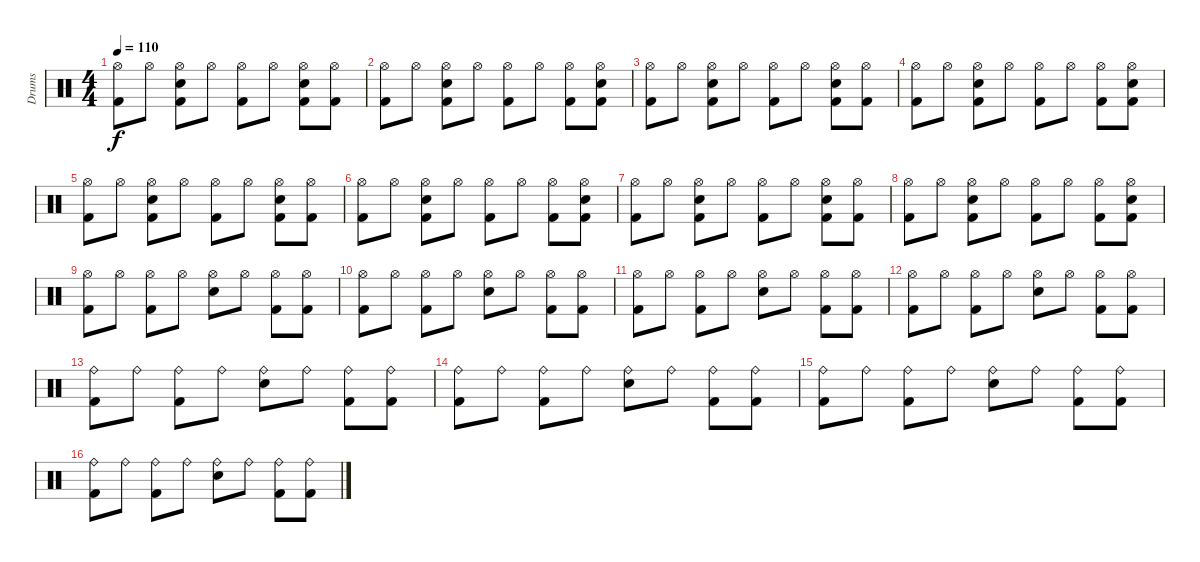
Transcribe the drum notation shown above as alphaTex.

\track ("Drums" "Drums") {instrument percussion}
\staff {score}
\articulation defaults
\ts (4 4)
\tempo 110
\clef neutral
\ks c
("Hi-Hat (open)" "Kick (hit) 2").8{dy f} "Hi-Hat (open)".8 ("Hi-Hat (open)" "Electric Snare (hit)" "Kick (hit) 2").8 "Hi-Hat (open)".8 ("Hi-Hat (open)" "Kick (hit) 2").8 "Hi-Hat (open)".8 ("Hi-Hat (open)" "Electric Snare (hit)" "Kick (hit) 2").8 ("Hi-Hat (open)" "Kick (hit) 2").8 |
("Hi-Hat (open)" "Kick (hit) 2").8 "Hi-Hat (open)".8 ("Hi-Hat (open)" "Electric Snare (hit)" "Kick (hit) 2").8 "Hi-Hat (open)".8 ("Hi-Hat (open)" "Kick (hit) 2").8 "Hi-Hat (open)".8 ("Hi-Hat (open)" "Kick (hit) 2").8 ("Hi-Hat (open)" "Electric Snare (hit)" "Kick (hit) 2").8 |
("Hi-Hat (open)" "Kick (hit) 2").8 "Hi-Hat (open)".8 ("Hi-Hat (open)" "Electric Snare (hit)" "Kick (hit) 2").8 "Hi-Hat (open)".8 ("Hi-Hat (open)" "Kick (hit) 2").8 "Hi-Hat (open)".8 ("Hi-Hat (open)" "Electric Snare (hit)" "Kick (hit) 2").8 ("Hi-Hat (open)" "Kick (hit) 2").8 |
("Hi-Hat (open)" "Kick (hit) 2").8 "Hi-Hat (open)".8 ("Hi-Hat (open)" "Electric Snare (hit)" "Kick (hit) 2").8 "Hi-Hat (open)".8 ("Hi-Hat (open)" "Kick (hit) 2").8 "Hi-Hat (open)".8 ("Hi-Hat (open)" "Kick (hit) 2").8 ("Hi-Hat (open)" "Electric Snare (hit)" "Kick (hit) 2").8 |
("Hi-Hat (open)" "Kick (hit) 2").8 "Hi-Hat (open)".8 ("Hi-Hat (open)" "Electric Snare (hit)" "Kick (hit) 2").8 "Hi-Hat (open)".8 ("Hi-Hat (open)" "Kick (hit) 2").8 "Hi-Hat (open)".8 ("Hi-Hat (open)" "Electric Snare (hit)" "Kick (hit) 2").8 ("Hi-Hat (open)" "Kick (hit) 2").8 |
("Hi-Hat (open)" "Kick (hit) 2").8 "Hi-Hat (open)".8 ("Hi-Hat (open)" "Electric Snare (hit)" "Kick (hit) 2").8 "Hi-Hat (open)".8 ("Hi-Hat (open)" "Kick (hit) 2").8 "Hi-Hat (open)".8 ("Hi-Hat (open)" "Kick (hit) 2").8 ("Hi-Hat (open)" "Electric Snare (hit)" "Kick (hit) 2").8 |
("Hi-Hat (open)" "Kick (hit) 2").8 "Hi-Hat (open)".8 ("Hi-Hat (open)" "Electric Snare (hit)" "Kick (hit) 2").8 "Hi-Hat (open)".8 ("Hi-Hat (open)" "Kick (hit) 2").8 "Hi-Hat (open)".8 ("Hi-Hat (open)" "Electric Snare (hit)" "Kick (hit) 2").8 ("Hi-Hat (open)" "Kick (hit) 2").8 |
("Hi-Hat (open)" "Kick (hit) 2").8 "Hi-Hat (open)".8 ("Hi-Hat (open)" "Electric Snare (hit)" "Kick (hit) 2").8 "Hi-Hat (open)".8 ("Hi-Hat (open)" "Kick (hit) 2").8 "Hi-Hat (open)".8 ("Hi-Hat (open)" "Kick (hit) 2").8 ("Hi-Hat (open)" "Electric Snare (hit)" "Kick (hit) 2").8 |
("Hi-Hat (open)" "Kick (hit) 2").8 "Hi-Hat (open)".8 ("Hi-Hat (open)" "Kick (hit) 2").8 "Hi-Hat (open)".8 ("Hi-Hat (open)" "Electric Snare (hit)").8 "Hi-Hat (open)".8 ("Hi-Hat (open)" "Kick (hit) 2").8 ("Hi-Hat (open)" "Kick (hit) 2").8 |
("Hi-Hat (open)" "Kick (hit) 2").8 "Hi-Hat (open)".8 ("Hi-Hat (open)" "Kick (hit) 2").8 "Hi-Hat (open)".8 ("Hi-Hat (open)" "Electric Snare (hit)").8 "Hi-Hat (open)".8 ("Hi-Hat (open)" "Kick (hit) 2").8 ("Hi-Hat (open)" "Kick (hit) 2").8 |
("Hi-Hat (open)" "Kick (hit) 2").8 "Hi-Hat (open)".8 ("Hi-Hat (open)" "Kick (hit) 2").8 "Hi-Hat (open)".8 ("Hi-Hat (open)" "Electric Snare (hit)").8 "Hi-Hat (open)".8 ("Hi-Hat (open)" "Kick (hit) 2").8 ("Hi-Hat (open)" "Kick (hit) 2").8 |
("Hi-Hat (open)" "Kick (hit) 2").8 "Hi-Hat (open)".8 ("Hi-Hat (open)" "Kick (hit) 2").8 "Hi-Hat (open)".8 ("Hi-Hat (open)" "Electric Snare (hit)").8 "Hi-Hat (open)".8 ("Hi-Hat (open)" "Kick (hit) 2").8 ("Hi-Hat (open)" "Kick (hit) 2").8 |
("Ride (bell)" "Kick (hit) 2").8 "Ride (bell)".8 ("Ride (bell)" "Kick (hit) 2").8 "Ride (bell)".8 ("Ride (bell)" "Electric Snare (hit)").8 "Ride (bell)".8 ("Ride (bell)" "Kick (hit) 2").8 ("Ride (bell)" "Kick (hit) 2").8 |
("Ride (bell)" "Kick (hit) 2").8 "Ride (bell)".8 ("Ride (bell)" "Kick (hit) 2").8 "Ride (bell)".8 ("Ride (bell)" "Electric Snare (hit)").8 "Ride (bell)".8 ("Ride (bell)" "Kick (hit) 2").8 ("Ride (bell)" "Kick (hit) 2").8 |
("Ride (bell)" "Kick (hit) 2").8 "Ride (bell)".8 ("Ride (bell)" "Kick (hit) 2").8 "Ride (bell)".8 ("Ride (bell)" "Electric Snare (hit)").8 "Ride (bell)".8 ("Ride (bell)" "Kick (hit) 2").8 ("Ride (bell)" "Kick (hit) 2").8 |
("Ride (bell)" "Kick (hit) 2").8 "Ride (bell)".8 ("Ride (bell)" "Kick (hit) 2").8 "Ride (bell)".8 ("Ride (bell)" "Electric Snare (hit)").8 "Ride (bell)".8 ("Ride (bell)" "Kick (hit) 2").8 ("Ride (bell)" "Kick (hit) 2").8
